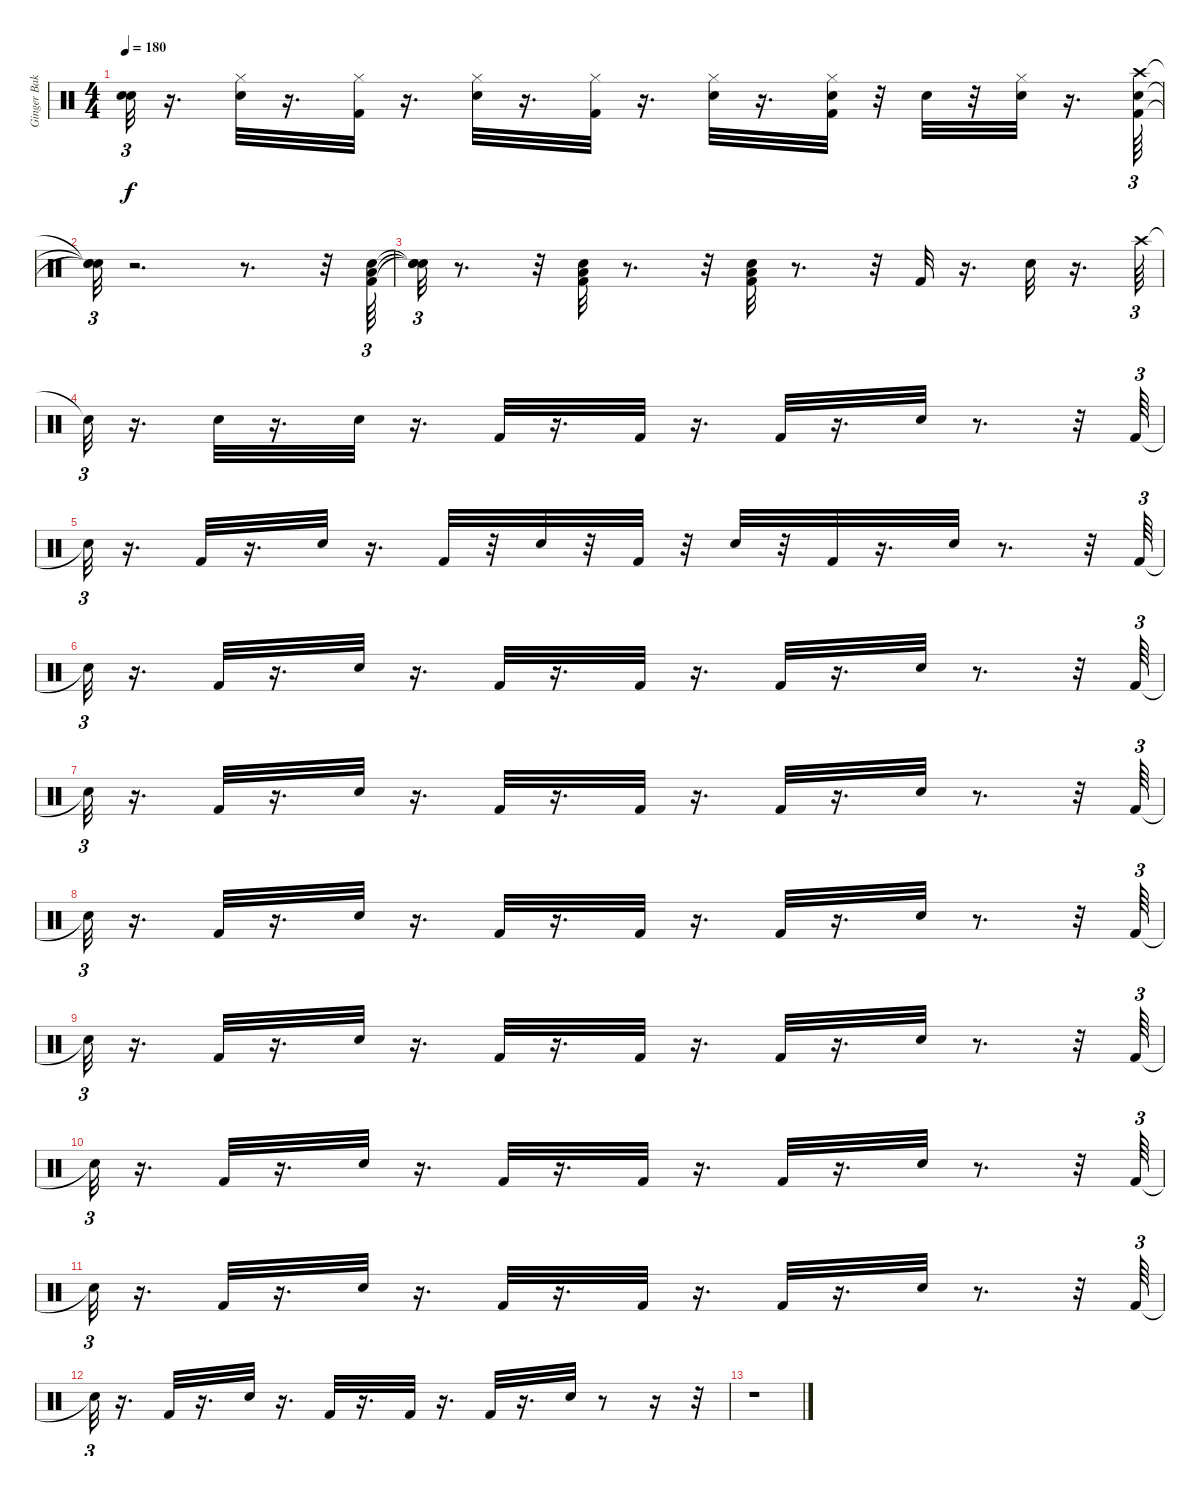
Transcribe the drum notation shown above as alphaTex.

\track ("Ginger Baker" "Ginger Bak") {instrument percussion}
\staff {score}
\articulation defaults
\ts (4 4)
\tempo 180
\clef neutral
\ks c
("Snare (hit)"{t} "Snare (hit)"{t}).32{tu (3 2) dy f} r.16{d} ("Hi-Hat (closed)" "Snare (hit) 2").32 r.16{d} ("Hi-Hat (closed)" "Kick (hit) 2").32 r.16{d} ("Hi-Hat (closed)" "Snare (hit) 2").32 r.16{d} ("Hi-Hat (closed)" "Kick (hit) 2").32 r.16{d} ("Hi-Hat (closed)" "Snare (hit) 2").32 r.16{d} ("Snare (hit) 2" "Hi-Hat (closed)" "Kick (hit) 2").32 r.32 "Snare (hit) 2".32 r.32 ("Snare (hit) 2" "Hi-Hat (closed)").32 r.16{d} ("Crash high (hit)" "Snare (hit) 2" "Kick (hit) 2").64{tu (3 2)} |
("Snare (hit)"{t} "Snare (hit)"{t} "Snare (hit)"{t}).32{tu (3 2)} r.2{d} r.8{d} r.32 ("Kick (hit) 2" "Low Floor Tom (hit)" "Snare (hit) 2").64{tu (3 2)} |
("Snare (hit)"{t} "Snare (hit)"{t} "Snare (hit)"{t}).32{tu (3 2)} r.8{d} r.32 ("Kick (hit) 2" "Low Floor Tom (hit)" "Snare (hit) 2").32 r.8{d} r.32 ("Low Floor Tom (hit)" "Kick (hit) 2" "Snare (hit) 2").32 r.8{d} r.32 "Kick (hit) 2".32 r.16{d} "Snare (hit) 2".32 r.16{d} "Crash high (hit)".64{tu (3 2)} |
"Snare (hit)"{t}.32{tu (3 2)} r.16{d} "Snare (hit) 2".32 r.16{d} "Snare (hit) 2".32 r.16{d} "Kick (hit) 2".32 r.16{d} "Kick (hit) 2".32 r.16{d} "Kick (hit) 2".32 r.16{d} "Snare (hit) 2".32 r.8{d} r.32 "Kick (hit) 2".64{tu (3 2)} |
"Snare (hit)"{t}.32{tu (3 2)} r.16{d} "Kick (hit) 2".32 r.16{d} "Snare (hit) 2".32 r.16{d} "Kick (hit) 2".32 r.32 "Snare (hit) 2".32 r.32 "Kick (hit) 2".32 r.32 "Snare (hit) 2".32 r.32 "Kick (hit) 2".32 r.16{d} "Snare (hit) 2".32 r.8{d} r.32 "Kick (hit) 2".64{tu (3 2)} |
"Snare (hit)"{t}.32{tu (3 2)} r.16{d} "Kick (hit) 2".32 r.16{d} "Snare (hit) 2".32 r.16{d} "Kick (hit) 2".32 r.16{d} "Kick (hit) 2".32 r.16{d} "Kick (hit) 2".32 r.16{d} "Snare (hit) 2".32 r.8{d} r.32 "Kick (hit) 2".64{tu (3 2)} |
"Snare (hit)"{t}.32{tu (3 2)} r.16{d} "Kick (hit) 2".32 r.16{d} "Snare (hit) 2".32 r.16{d} "Kick (hit) 2".32 r.16{d} "Kick (hit) 2".32 r.16{d} "Kick (hit) 2".32 r.16{d} "Snare (hit) 2".32 r.8{d} r.32 "Kick (hit) 2".64{tu (3 2) volume 10} |
"Snare (hit)"{t}.32{tu (3 2)} r.16{d} "Kick (hit) 2".32{volume 10} r.16{d} "Snare (hit) 2".32{volume 10} r.16{d} "Kick (hit) 2".32{volume 9} r.16{d} "Kick (hit) 2".32{volume 9} r.16{d} "Kick (hit) 2".32{volume 9} r.16{d} "Snare (hit) 2".32{volume 9} r.8{d} r.32 "Kick (hit) 2".64{tu (3 2) volume 8} |
"Snare (hit)"{t}.32{tu (3 2)} r.16{d} "Kick (hit) 2".32{volume 8} r.16{d} "Snare (hit) 2".32{volume 8} r.16{d} "Kick (hit) 2".32{volume 8} r.16{d} "Kick (hit) 2".32{volume 8} r.16{d} "Kick (hit) 2".32{volume 7} r.16{d} "Snare (hit) 2".32{volume 7} r.8{d} r.32 "Kick (hit) 2".64{tu (3 2) volume 7} |
"Snare (hit)"{t}.32{tu (3 2)} r.16{d} "Kick (hit) 2".32{volume 6} r.16{d} "Snare (hit) 2".32{volume 6} r.16{d} "Kick (hit) 2".32{volume 6} r.16{d} "Kick (hit) 2".32{volume 6} r.16{d} "Kick (hit) 2".32{volume 6} r.16{d} "Snare (hit) 2".32{volume 6} r.8{d} r.32 "Kick (hit) 2".64{tu (3 2) volume 5} |
"Snare (hit)"{t}.32{tu (3 2)} r.16{d} "Kick (hit) 2".32{volume 5} r.16{d} "Snare (hit) 2".32{volume 5} r.16{d} "Kick (hit) 2".32{volume 4} r.16{d} "Kick (hit) 2".32{volume 4} r.16{d} "Kick (hit) 2".32{volume 4} r.16{d} "Snare (hit) 2".32{volume 4} r.8{d} r.32 "Kick (hit) 2".64{tu (3 2) volume 3} |
"Snare (hit)"{t}.32{tu (3 2)} r.16{d} "Kick (hit) 2".32{volume 3} r.16{d} "Snare (hit) 2".32{volume 3} r.16{d} "Kick (hit) 2".32{volume 3} r.16{d} "Kick (hit) 2".32{volume 2} r.16{d} "Kick (hit) 2".32{volume 2} r.16{d} "Snare (hit) 2".32{volume 2} r.8 r.16 r.32 |
r.1
